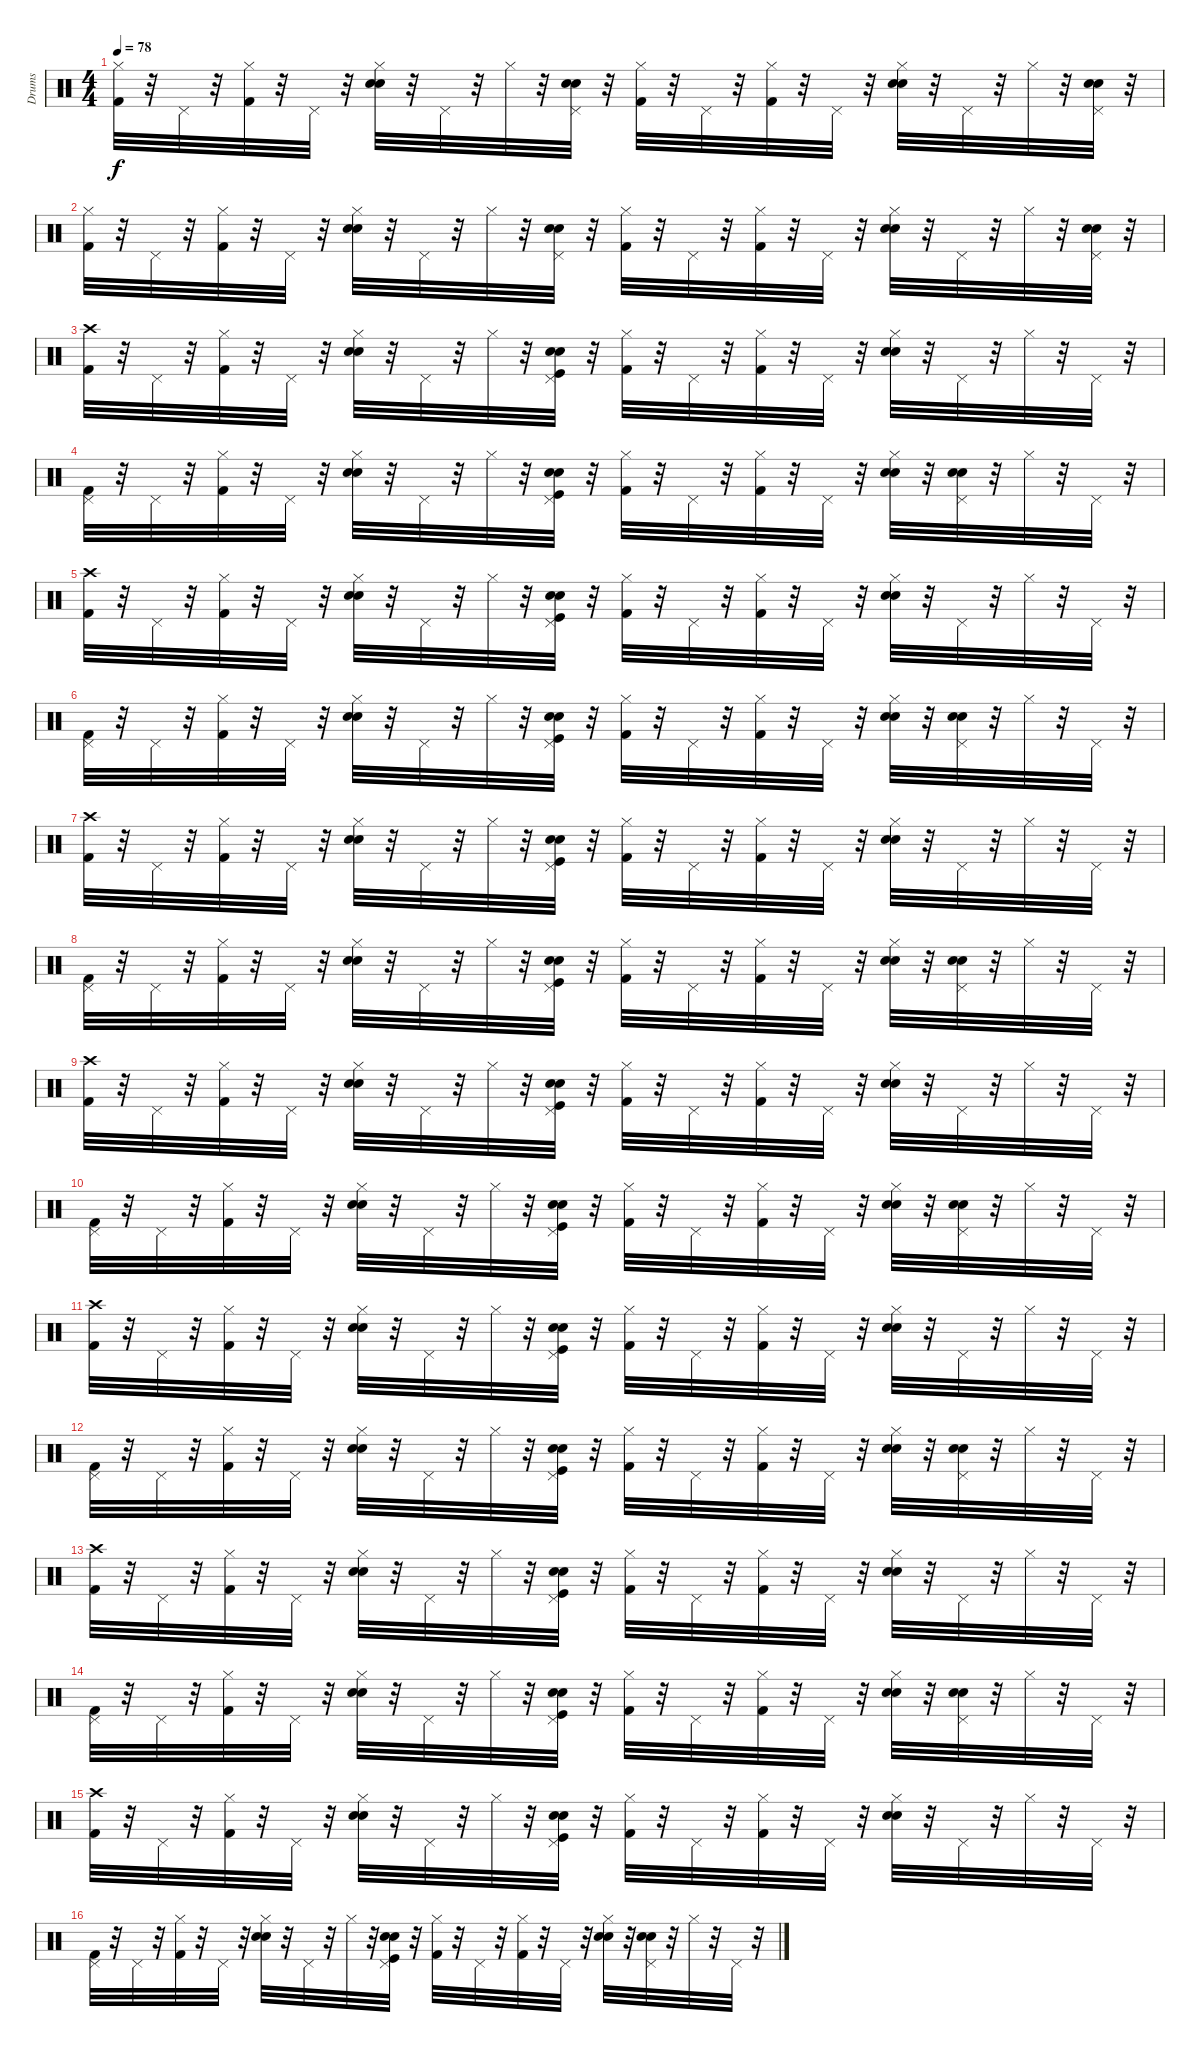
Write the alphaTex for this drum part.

\track ("Drums" "Drums") {instrument percussion}
\staff {score}
\articulation defaults
\ts (4 4)
\tempo 78
\clef neutral
\ks c
("Hi-Hat (closed)" "Kick (hit) 2").32{dy f} r.32 "Pedal Hi-Hat (hit)".32 r.32 ("Kick (hit) 2" "Hi-Hat (closed)").32 r.32 "Pedal Hi-Hat (hit)".32 r.32 ("Snare (hit) 2" "Electric Snare (hit)" "Hi-Hat (closed)").32 r.32 "Pedal Hi-Hat (hit)".32 r.32 "Hi-Hat (closed)".32 r.32 ("Snare (hit) 2" "Electric Snare (hit)" "Pedal Hi-Hat (hit)").32 r.32 ("Kick (hit) 2" "Hi-Hat (closed)").32 r.32 "Pedal Hi-Hat (hit)".32 r.32 ("Kick (hit) 2" "Hi-Hat (closed)").32 r.32 "Pedal Hi-Hat (hit)".32 r.32 ("Electric Snare (hit)" "Snare (hit) 2" "Hi-Hat (closed)").32 r.32 "Pedal Hi-Hat (hit)".32 r.32 "Hi-Hat (closed)".32 r.32 ("Pedal Hi-Hat (hit)" "Snare (hit) 2" "Electric Snare (hit)").32 r.32 |
("Hi-Hat (closed)" "Kick (hit) 2").32 r.32 "Pedal Hi-Hat (hit)".32 r.32 ("Kick (hit) 2" "Hi-Hat (closed)").32 r.32 "Pedal Hi-Hat (hit)".32 r.32 ("Snare (hit) 2" "Electric Snare (hit)" "Hi-Hat (closed)").32 r.32 "Pedal Hi-Hat (hit)".32 r.32 "Hi-Hat (closed)".32 r.32 ("Snare (hit) 2" "Electric Snare (hit)" "Pedal Hi-Hat (hit)").32 r.32 ("Kick (hit) 2" "Hi-Hat (closed)").32 r.32 "Pedal Hi-Hat (hit)".32 r.32 ("Kick (hit) 2" "Hi-Hat (closed)").32 r.32 "Pedal Hi-Hat (hit)".32 r.32 ("Electric Snare (hit)" "Snare (hit) 2" "Hi-Hat (closed)").32 r.32 "Pedal Hi-Hat (hit)".32 r.32 "Hi-Hat (closed)".32 r.32 ("Pedal Hi-Hat (hit)" "Snare (hit) 2" "Electric Snare (hit)").32 r.32 |
("Crash high (hit)" "Kick (hit) 2").32 r.32 "Pedal Hi-Hat (hit)".32 r.32 ("Hi-Hat (closed)" "Kick (hit) 2").32 r.32 "Pedal Hi-Hat (hit)".32 r.32 ("Hi-Hat (closed)" "Hand Clap (hit)" "Electric Snare (hit)").32 r.32 "Pedal Hi-Hat (hit)".32 r.32 "Hi-Hat (closed)".32 r.32 ("Hand Clap (hit)" "Electric Snare (hit)" "Pedal Hi-Hat (hit)" "Kick (hit)").32 r.32 ("Hi-Hat (closed)" "Kick (hit) 2").32 r.32 "Pedal Hi-Hat (hit)".32 r.32 ("Hi-Hat (closed)" "Kick (hit) 2").32 r.32 "Pedal Hi-Hat (hit)".32 r.32 ("Hi-Hat (closed)" "Hand Clap (hit)" "Electric Snare (hit)").32 r.32 "Pedal Hi-Hat (hit)".32 r.32 "Hi-Hat (closed)".32 r.32 "Pedal Hi-Hat (hit)".32 r.32 |
("Pedal Hi-Hat (hit)" "Kick (hit) 2").32 r.32 "Pedal Hi-Hat (hit)".32 r.32 ("Hi-Hat (closed)" "Kick (hit) 2").32 r.32 "Pedal Hi-Hat (hit)".32 r.32 ("Hi-Hat (closed)" "Hand Clap (hit)" "Electric Snare (hit)").32 r.32 "Pedal Hi-Hat (hit)".32 r.32 "Hi-Hat (closed)".32 r.32 ("Hand Clap (hit)" "Electric Snare (hit)" "Pedal Hi-Hat (hit)" "Kick (hit)").32 r.32 ("Hi-Hat (closed)" "Kick (hit) 2").32 r.32 "Pedal Hi-Hat (hit)".32 r.32 ("Hi-Hat (closed)" "Kick (hit) 2").32 r.32 "Pedal Hi-Hat (hit)".32 r.32 ("Hi-Hat (closed)" "Hand Clap (hit)" "Electric Snare (hit)").32 r.32 ("Hand Clap (hit)" "Electric Snare (hit)" "Pedal Hi-Hat (hit)").32 r.32 "Hi-Hat (closed)".32 r.32 "Pedal Hi-Hat (hit)".32 r.32 |
("Crash high (hit)" "Kick (hit) 2").32 r.32 "Pedal Hi-Hat (hit)".32 r.32 ("Hi-Hat (closed)" "Kick (hit) 2").32 r.32 "Pedal Hi-Hat (hit)".32 r.32 ("Hi-Hat (closed)" "Hand Clap (hit)" "Electric Snare (hit)").32 r.32 "Pedal Hi-Hat (hit)".32 r.32 "Hi-Hat (closed)".32 r.32 ("Hand Clap (hit)" "Electric Snare (hit)" "Pedal Hi-Hat (hit)" "Kick (hit)").32 r.32 ("Hi-Hat (closed)" "Kick (hit) 2").32 r.32 "Pedal Hi-Hat (hit)".32 r.32 ("Hi-Hat (closed)" "Kick (hit) 2").32 r.32 "Pedal Hi-Hat (hit)".32 r.32 ("Hi-Hat (closed)" "Hand Clap (hit)" "Electric Snare (hit)").32 r.32 "Pedal Hi-Hat (hit)".32 r.32 "Hi-Hat (closed)".32 r.32 "Pedal Hi-Hat (hit)".32 r.32 |
("Pedal Hi-Hat (hit)" "Kick (hit) 2").32 r.32 "Pedal Hi-Hat (hit)".32 r.32 ("Hi-Hat (closed)" "Kick (hit) 2").32 r.32 "Pedal Hi-Hat (hit)".32 r.32 ("Hi-Hat (closed)" "Hand Clap (hit)" "Electric Snare (hit)").32 r.32 "Pedal Hi-Hat (hit)".32 r.32 "Hi-Hat (closed)".32 r.32 ("Hand Clap (hit)" "Electric Snare (hit)" "Pedal Hi-Hat (hit)" "Kick (hit)").32 r.32 ("Hi-Hat (closed)" "Kick (hit) 2").32 r.32 "Pedal Hi-Hat (hit)".32 r.32 ("Hi-Hat (closed)" "Kick (hit) 2").32 r.32 "Pedal Hi-Hat (hit)".32 r.32 ("Hi-Hat (closed)" "Hand Clap (hit)" "Electric Snare (hit)").32 r.32 ("Hand Clap (hit)" "Electric Snare (hit)" "Pedal Hi-Hat (hit)").32 r.32 "Hi-Hat (closed)".32 r.32 "Pedal Hi-Hat (hit)".32 r.32 |
("Crash high (hit)" "Kick (hit) 2").32 r.32 "Pedal Hi-Hat (hit)".32 r.32 ("Hi-Hat (closed)" "Kick (hit) 2").32 r.32 "Pedal Hi-Hat (hit)".32 r.32 ("Hi-Hat (closed)" "Hand Clap (hit)" "Electric Snare (hit)").32 r.32 "Pedal Hi-Hat (hit)".32 r.32 "Hi-Hat (closed)".32 r.32 ("Hand Clap (hit)" "Electric Snare (hit)" "Pedal Hi-Hat (hit)" "Kick (hit)").32 r.32 ("Hi-Hat (closed)" "Kick (hit) 2").32 r.32 "Pedal Hi-Hat (hit)".32 r.32 ("Hi-Hat (closed)" "Kick (hit) 2").32 r.32 "Pedal Hi-Hat (hit)".32 r.32 ("Hi-Hat (closed)" "Hand Clap (hit)" "Electric Snare (hit)").32 r.32 "Pedal Hi-Hat (hit)".32 r.32 "Hi-Hat (closed)".32 r.32 "Pedal Hi-Hat (hit)".32 r.32 |
("Pedal Hi-Hat (hit)" "Kick (hit) 2").32 r.32 "Pedal Hi-Hat (hit)".32 r.32 ("Hi-Hat (closed)" "Kick (hit) 2").32 r.32 "Pedal Hi-Hat (hit)".32 r.32 ("Hi-Hat (closed)" "Hand Clap (hit)" "Electric Snare (hit)").32 r.32 "Pedal Hi-Hat (hit)".32 r.32 "Hi-Hat (closed)".32 r.32 ("Hand Clap (hit)" "Electric Snare (hit)" "Pedal Hi-Hat (hit)" "Kick (hit)").32 r.32 ("Hi-Hat (closed)" "Kick (hit) 2").32 r.32 "Pedal Hi-Hat (hit)".32 r.32 ("Hi-Hat (closed)" "Kick (hit) 2").32 r.32 "Pedal Hi-Hat (hit)".32 r.32 ("Hi-Hat (closed)" "Hand Clap (hit)" "Electric Snare (hit)").32 r.32 ("Hand Clap (hit)" "Electric Snare (hit)" "Pedal Hi-Hat (hit)").32 r.32 "Hi-Hat (closed)".32 r.32 "Pedal Hi-Hat (hit)".32 r.32 |
("Crash high (hit)" "Kick (hit) 2").32 r.32 "Pedal Hi-Hat (hit)".32 r.32 ("Hi-Hat (closed)" "Kick (hit) 2").32 r.32 "Pedal Hi-Hat (hit)".32 r.32 ("Hi-Hat (closed)" "Hand Clap (hit)" "Electric Snare (hit)").32 r.32 "Pedal Hi-Hat (hit)".32 r.32 "Hi-Hat (closed)".32 r.32 ("Hand Clap (hit)" "Electric Snare (hit)" "Pedal Hi-Hat (hit)" "Kick (hit)").32 r.32 ("Hi-Hat (closed)" "Kick (hit) 2").32 r.32 "Pedal Hi-Hat (hit)".32 r.32 ("Hi-Hat (closed)" "Kick (hit) 2").32 r.32 "Pedal Hi-Hat (hit)".32 r.32 ("Hi-Hat (closed)" "Hand Clap (hit)" "Electric Snare (hit)").32 r.32 "Pedal Hi-Hat (hit)".32 r.32 "Hi-Hat (closed)".32 r.32 "Pedal Hi-Hat (hit)".32 r.32 |
("Pedal Hi-Hat (hit)" "Kick (hit) 2").32 r.32 "Pedal Hi-Hat (hit)".32 r.32 ("Hi-Hat (closed)" "Kick (hit) 2").32 r.32 "Pedal Hi-Hat (hit)".32 r.32 ("Hi-Hat (closed)" "Hand Clap (hit)" "Electric Snare (hit)").32 r.32 "Pedal Hi-Hat (hit)".32 r.32 "Hi-Hat (closed)".32 r.32 ("Hand Clap (hit)" "Electric Snare (hit)" "Pedal Hi-Hat (hit)" "Kick (hit)").32 r.32 ("Hi-Hat (closed)" "Kick (hit) 2").32 r.32 "Pedal Hi-Hat (hit)".32 r.32 ("Hi-Hat (closed)" "Kick (hit) 2").32 r.32 "Pedal Hi-Hat (hit)".32 r.32 ("Hi-Hat (closed)" "Hand Clap (hit)" "Electric Snare (hit)").32 r.32 ("Hand Clap (hit)" "Electric Snare (hit)" "Pedal Hi-Hat (hit)").32 r.32 "Hi-Hat (closed)".32 r.32 "Pedal Hi-Hat (hit)".32 r.32 |
("Crash high (hit)" "Kick (hit) 2").32 r.32 "Pedal Hi-Hat (hit)".32 r.32 ("Hi-Hat (closed)" "Kick (hit) 2").32 r.32 "Pedal Hi-Hat (hit)".32 r.32 ("Hi-Hat (closed)" "Hand Clap (hit)" "Electric Snare (hit)").32 r.32 "Pedal Hi-Hat (hit)".32 r.32 "Hi-Hat (closed)".32 r.32 ("Hand Clap (hit)" "Electric Snare (hit)" "Pedal Hi-Hat (hit)" "Kick (hit)").32 r.32 ("Hi-Hat (closed)" "Kick (hit) 2").32 r.32 "Pedal Hi-Hat (hit)".32 r.32 ("Hi-Hat (closed)" "Kick (hit) 2").32 r.32 "Pedal Hi-Hat (hit)".32 r.32 ("Hi-Hat (closed)" "Hand Clap (hit)" "Electric Snare (hit)").32 r.32 "Pedal Hi-Hat (hit)".32 r.32 "Hi-Hat (closed)".32 r.32 "Pedal Hi-Hat (hit)".32 r.32 |
("Pedal Hi-Hat (hit)" "Kick (hit) 2").32 r.32 "Pedal Hi-Hat (hit)".32 r.32 ("Hi-Hat (closed)" "Kick (hit) 2").32 r.32 "Pedal Hi-Hat (hit)".32 r.32 ("Hi-Hat (closed)" "Hand Clap (hit)" "Electric Snare (hit)").32 r.32 "Pedal Hi-Hat (hit)".32 r.32 "Hi-Hat (closed)".32 r.32 ("Hand Clap (hit)" "Electric Snare (hit)" "Pedal Hi-Hat (hit)" "Kick (hit)").32 r.32 ("Hi-Hat (closed)" "Kick (hit) 2").32 r.32 "Pedal Hi-Hat (hit)".32 r.32 ("Hi-Hat (closed)" "Kick (hit) 2").32 r.32 "Pedal Hi-Hat (hit)".32 r.32 ("Hi-Hat (closed)" "Hand Clap (hit)" "Electric Snare (hit)").32 r.32 ("Hand Clap (hit)" "Electric Snare (hit)" "Pedal Hi-Hat (hit)").32 r.32 "Hi-Hat (closed)".32 r.32 "Pedal Hi-Hat (hit)".32 r.32 |
("Crash high (hit)" "Kick (hit) 2").32 r.32 "Pedal Hi-Hat (hit)".32 r.32 ("Hi-Hat (closed)" "Kick (hit) 2").32 r.32 "Pedal Hi-Hat (hit)".32 r.32 ("Hi-Hat (closed)" "Hand Clap (hit)" "Electric Snare (hit)").32 r.32 "Pedal Hi-Hat (hit)".32 r.32 "Hi-Hat (closed)".32 r.32 ("Hand Clap (hit)" "Electric Snare (hit)" "Pedal Hi-Hat (hit)" "Kick (hit)").32 r.32 ("Hi-Hat (closed)" "Kick (hit) 2").32 r.32 "Pedal Hi-Hat (hit)".32 r.32 ("Hi-Hat (closed)" "Kick (hit) 2").32 r.32 "Pedal Hi-Hat (hit)".32 r.32 ("Hi-Hat (closed)" "Hand Clap (hit)" "Electric Snare (hit)").32 r.32 "Pedal Hi-Hat (hit)".32 r.32 "Hi-Hat (closed)".32 r.32 "Pedal Hi-Hat (hit)".32 r.32 |
("Pedal Hi-Hat (hit)" "Kick (hit) 2").32 r.32 "Pedal Hi-Hat (hit)".32 r.32 ("Hi-Hat (closed)" "Kick (hit) 2").32 r.32 "Pedal Hi-Hat (hit)".32 r.32 ("Hi-Hat (closed)" "Hand Clap (hit)" "Electric Snare (hit)").32 r.32 "Pedal Hi-Hat (hit)".32 r.32 "Hi-Hat (closed)".32 r.32 ("Hand Clap (hit)" "Electric Snare (hit)" "Pedal Hi-Hat (hit)" "Kick (hit)").32 r.32 ("Hi-Hat (closed)" "Kick (hit) 2").32 r.32 "Pedal Hi-Hat (hit)".32 r.32 ("Hi-Hat (closed)" "Kick (hit) 2").32 r.32 "Pedal Hi-Hat (hit)".32 r.32 ("Hi-Hat (closed)" "Hand Clap (hit)" "Electric Snare (hit)").32 r.32 ("Hand Clap (hit)" "Electric Snare (hit)" "Pedal Hi-Hat (hit)").32 r.32 "Hi-Hat (closed)".32 r.32 "Pedal Hi-Hat (hit)".32 r.32 |
("Crash high (hit)" "Kick (hit) 2").32 r.32 "Pedal Hi-Hat (hit)".32 r.32 ("Hi-Hat (closed)" "Kick (hit) 2").32 r.32 "Pedal Hi-Hat (hit)".32 r.32 ("Hi-Hat (closed)" "Hand Clap (hit)" "Electric Snare (hit)").32 r.32 "Pedal Hi-Hat (hit)".32 r.32 "Hi-Hat (closed)".32 r.32 ("Hand Clap (hit)" "Electric Snare (hit)" "Pedal Hi-Hat (hit)" "Kick (hit)").32 r.32 ("Hi-Hat (closed)" "Kick (hit) 2").32 r.32 "Pedal Hi-Hat (hit)".32 r.32 ("Hi-Hat (closed)" "Kick (hit) 2").32 r.32 "Pedal Hi-Hat (hit)".32 r.32 ("Hi-Hat (closed)" "Hand Clap (hit)" "Electric Snare (hit)").32 r.32 "Pedal Hi-Hat (hit)".32 r.32 "Hi-Hat (closed)".32 r.32 "Pedal Hi-Hat (hit)".32 r.32 |
("Pedal Hi-Hat (hit)" "Kick (hit) 2").32 r.32 "Pedal Hi-Hat (hit)".32 r.32 ("Hi-Hat (closed)" "Kick (hit) 2").32 r.32 "Pedal Hi-Hat (hit)".32 r.32 ("Hi-Hat (closed)" "Hand Clap (hit)" "Electric Snare (hit)").32 r.32 "Pedal Hi-Hat (hit)".32 r.32 "Hi-Hat (closed)".32 r.32 ("Hand Clap (hit)" "Electric Snare (hit)" "Pedal Hi-Hat (hit)" "Kick (hit)").32 r.32 ("Hi-Hat (closed)" "Kick (hit) 2").32 r.32 "Pedal Hi-Hat (hit)".32 r.32 ("Hi-Hat (closed)" "Kick (hit) 2").32 r.32 "Pedal Hi-Hat (hit)".32 r.32 ("Hi-Hat (closed)" "Hand Clap (hit)" "Electric Snare (hit)").32 r.32 ("Hand Clap (hit)" "Electric Snare (hit)" "Pedal Hi-Hat (hit)").32 r.32 "Hi-Hat (closed)".32 r.32 "Pedal Hi-Hat (hit)".32 r.32
